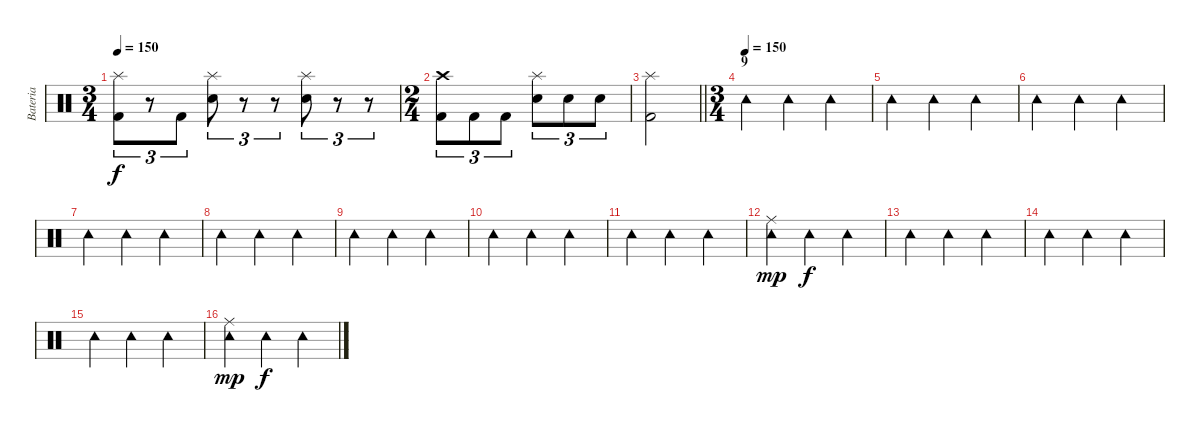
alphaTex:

\track ("Bateria" "Bateria") {instrument percussion}
\staff {score}
\articulation defaults
\ts (3 4)
\tempo 150
\clef neutral
\ks c
("Splash (hit)" "Kick (hit) 2").8{tu (3 2) dy f} r.8{tu (3 2)} "Kick (hit) 2".8{tu (3 2)} ("Splash (hit)" "Snare (hit)").8{tu (3 2)} r.8{tu (3 2)} r.8{tu (3 2)} ("Splash (hit)" "Electric Snare (hit)").8{tu (3 2)} r.8{tu (3 2)} r.8{tu (3 2)} |
\ts (2 4)
("Crash high (hit)" "Kick (hit) 2").8{tu (3 2)} "Kick (hit) 2".8{tu (3 2)} "Kick (hit) 2".8{tu (3 2)} ("Splash (hit)" "Electric Snare (hit)").8{tu (3 2)} "Snare (hit)".8{tu (3 2)} "Snare (hit)".8{tu (3 2)} |
\barLineRight lightlight
("Splash (hit)" "Kick (hit) 2").2 |
\ts (3 4)
\section ("" "9")
\tempo (150)
"Tambourine (hit)".4 "Tambourine (hit)".4 "Tambourine (hit)".4 |
"Tambourine (hit)".4 "Tambourine (hit)".4 "Tambourine (hit)".4 |
"Tambourine (hit)".4 "Tambourine (hit)".4 "Tambourine (hit)".4 |
"Tambourine (hit)".4 "Tambourine (hit)".4 "Tambourine (hit)".4 |
"Tambourine (hit)".4 "Tambourine (hit)".4 "Tambourine (hit)".4 |
"Tambourine (hit)".4 "Tambourine (hit)".4 "Tambourine (hit)".4 |
"Tambourine (hit)".4 "Tambourine (hit)".4 "Tambourine (hit)".4 |
"Tambourine (hit)".4 "Tambourine (hit)".4 "Tambourine (hit)".4 |
("Tambourine (hit)" "Ride (middle)").4{dy mp} "Tambourine (hit)".4{dy f} "Tambourine (hit)".4 |
"Tambourine (hit)".4 "Tambourine (hit)".4 "Tambourine (hit)".4 |
"Tambourine (hit)".4 "Tambourine (hit)".4 "Tambourine (hit)".4 |
"Tambourine (hit)".4 "Tambourine (hit)".4 "Tambourine (hit)".4 |
("Tambourine (hit)" "Ride (middle)").4{dy mp} "Tambourine (hit)".4{dy f} "Tambourine (hit)".4
